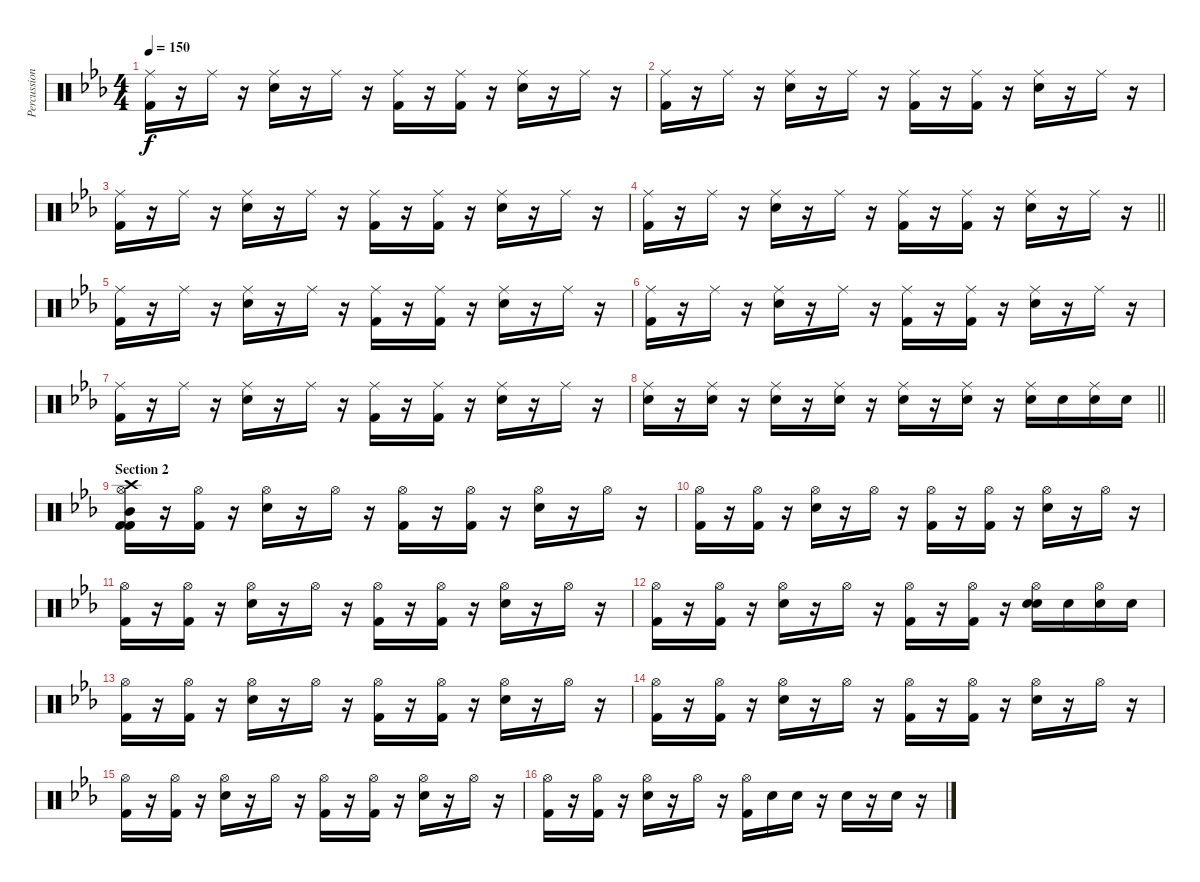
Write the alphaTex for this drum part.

\track ("Percussions" "Percussion") {solo instrument percussion}
\staff {score}
\articulation defaults
\ts (4 4)
\tempo 150
\clef neutral
\ks eb
("Ride (middle)" "Kick (hit) 2").16{dy f} r.16 "Ride (middle)".16 r.16 ("Ride (middle)" "Snare (hit) 2").16 r.16 "Ride (middle)".16 r.16 ("Ride (middle)" "Kick (hit) 2").16 r.16 ("Ride (middle)" "Kick (hit) 2").16 r.16 ("Ride (middle)" "Snare (hit) 2").16 r.16 "Ride (middle)".16 r.16 |
("Ride (middle)" "Kick (hit) 2").16 r.16 "Ride (middle)".16 r.16 ("Ride (middle)" "Snare (hit) 2").16 r.16 "Ride (middle)".16 r.16 ("Ride (middle)" "Kick (hit) 2").16 r.16 ("Ride (middle)" "Kick (hit) 2").16 r.16 ("Ride (middle)" "Snare (hit) 2").16 r.16 "Ride (middle)".16 r.16 |
("Ride (middle)" "Kick (hit) 2").16 r.16 "Ride (middle)".16 r.16 ("Ride (middle)" "Snare (hit) 2").16 r.16 "Ride (middle)".16 r.16 ("Ride (middle)" "Kick (hit) 2").16 r.16 ("Ride (middle)" "Kick (hit) 2").16 r.16 ("Ride (middle)" "Snare (hit) 2").16 r.16 "Ride (middle)".16 r.16 |
\barLineRight lightlight
("Ride (middle)" "Kick (hit) 2").16 r.16 "Ride (middle)".16 r.16 ("Ride (middle)" "Snare (hit) 2").16 r.16 "Ride (middle)".16 r.16 ("Ride (middle)" "Kick (hit) 2").16 r.16 ("Ride (middle)" "Kick (hit) 2").16 r.16 ("Ride (middle)" "Snare (hit) 2").16 r.16 "Ride (middle)".16 r.16 |
("Ride (middle)" "Kick (hit) 2").16 r.16 "Ride (middle)".16 r.16 ("Ride (middle)" "Snare (hit) 2").16 r.16 "Ride (middle)".16 r.16 ("Ride (middle)" "Kick (hit) 2").16 r.16 ("Ride (middle)" "Kick (hit) 2").16 r.16 ("Ride (middle)" "Snare (hit) 2").16 r.16 "Ride (middle)".16 r.16 |
("Ride (middle)" "Kick (hit) 2").16 r.16 "Ride (middle)".16 r.16 ("Ride (middle)" "Snare (hit) 2").16 r.16 "Ride (middle)".16 r.16 ("Ride (middle)" "Kick (hit) 2").16 r.16 ("Ride (middle)" "Kick (hit) 2").16 r.16 ("Ride (middle)" "Snare (hit) 2").16 r.16 "Ride (middle)".16 r.16 |
("Ride (middle)" "Kick (hit) 2").16 r.16 "Ride (middle)".16 r.16 ("Ride (middle)" "Snare (hit) 2").16 r.16 "Ride (middle)".16 r.16 ("Ride (middle)" "Kick (hit) 2").16 r.16 ("Ride (middle)" "Kick (hit) 2").16 r.16 ("Ride (middle)" "Snare (hit) 2").16 r.16 "Ride (middle)".16 r.16 |
\barLineRight lightlight
("Ride (middle)" "Snare (hit) 2").16 r.16 ("Ride (middle)" "Snare (hit) 2").16 r.16 ("Ride (middle)" "Snare (hit) 2").16 r.16 ("Ride (middle)" "Snare (hit) 2").16 r.16 ("Ride (middle)" "Snare (hit) 2").16 r.16 ("Ride (middle)" "Snare (hit) 2").16 r.16 ("Ride (middle)" "Snare (hit) 2").16 "Snare (hit) 2".16 ("Ride (middle)" "Snare (hit) 2").16 "Snare (hit) 2".16 |
\section ("" "Section 2")
("Hi-Hat (open)" "Kick (hit) 2" "Mid Tom (hit)" "Kick (hit) 2" "Crash high (hit)").16 r.16 ("Hi-Hat (open)" "Kick (hit) 2").16 r.16 ("Hi-Hat (open)" "Snare (hit) 2").16 r.16 "Hi-Hat (open)".16 r.16 ("Hi-Hat (open)" "Kick (hit) 2").16 r.16 ("Hi-Hat (open)" "Kick (hit) 2").16 r.16 ("Hi-Hat (open)" "Snare (hit) 2").16 r.16 "Hi-Hat (open)".16 r.16 |
("Hi-Hat (open)" "Kick (hit) 2").16 r.16 ("Hi-Hat (open)" "Kick (hit) 2").16 r.16 ("Hi-Hat (open)" "Snare (hit) 2").16 r.16 "Hi-Hat (open)".16 r.16 ("Hi-Hat (open)" "Kick (hit) 2").16 r.16 ("Hi-Hat (open)" "Kick (hit) 2").16 r.16 ("Hi-Hat (open)" "Snare (hit) 2").16 r.16 "Hi-Hat (open)".16 r.16 |
("Hi-Hat (open)" "Kick (hit) 2").16 r.16 ("Hi-Hat (open)" "Kick (hit) 2").16 r.16 ("Hi-Hat (open)" "Snare (hit) 2").16 r.16 "Hi-Hat (open)".16 r.16 ("Hi-Hat (open)" "Kick (hit) 2").16 r.16 ("Hi-Hat (open)" "Kick (hit) 2").16 r.16 ("Hi-Hat (open)" "Snare (hit) 2").16 r.16 "Hi-Hat (open)".16 r.16 |
("Hi-Hat (open)" "Kick (hit) 2").16 r.16 ("Hi-Hat (open)" "Kick (hit) 2").16 r.16 ("Hi-Hat (open)" "Snare (hit) 2").16 r.16 "Hi-Hat (open)".16 r.16 ("Hi-Hat (open)" "Kick (hit) 2").16 r.16 ("Hi-Hat (open)" "Kick (hit) 2").16 r.16 ("Hi-Hat (open)" "Snare (hit) 2" "Snare (hit) 2").16 "Snare (hit) 2".16 ("Hi-Hat (open)" "Snare (hit) 2").16 "Snare (hit) 2".16 |
("Hi-Hat (open)" "Kick (hit) 2").16 r.16 ("Hi-Hat (open)" "Kick (hit) 2").16 r.16 ("Hi-Hat (open)" "Snare (hit) 2").16 r.16 "Hi-Hat (open)".16 r.16 ("Hi-Hat (open)" "Kick (hit) 2").16 r.16 ("Hi-Hat (open)" "Kick (hit) 2").16 r.16 ("Hi-Hat (open)" "Snare (hit) 2").16 r.16 "Hi-Hat (open)".16 r.16 |
("Hi-Hat (open)" "Kick (hit) 2").16 r.16 ("Hi-Hat (open)" "Kick (hit) 2").16 r.16 ("Hi-Hat (open)" "Snare (hit) 2").16 r.16 "Hi-Hat (open)".16 r.16 ("Hi-Hat (open)" "Kick (hit) 2").16 r.16 ("Hi-Hat (open)" "Kick (hit) 2").16 r.16 ("Hi-Hat (open)" "Snare (hit) 2").16 r.16 "Hi-Hat (open)".16 r.16 |
("Hi-Hat (open)" "Kick (hit) 2").16 r.16 ("Hi-Hat (open)" "Kick (hit) 2").16 r.16 ("Hi-Hat (open)" "Snare (hit) 2").16 r.16 "Hi-Hat (open)".16 r.16 ("Hi-Hat (open)" "Kick (hit) 2").16 r.16 ("Hi-Hat (open)" "Kick (hit) 2").16 r.16 ("Hi-Hat (open)" "Snare (hit) 2").16 r.16 "Hi-Hat (open)".16 r.16 |
("Hi-Hat (open)" "Kick (hit) 2").16 r.16 ("Hi-Hat (open)" "Kick (hit) 2").16 r.16 ("Hi-Hat (open)" "Snare (hit) 2").16 r.16 "Hi-Hat (open)".16 r.16 ("Hi-Hat (open)" "Kick (hit) 2").16 "Snare (hit) 2".16 "Snare (hit) 2".16 r.16 "Snare (hit) 2".16 r.16 "Snare (hit) 2".16 r.16
